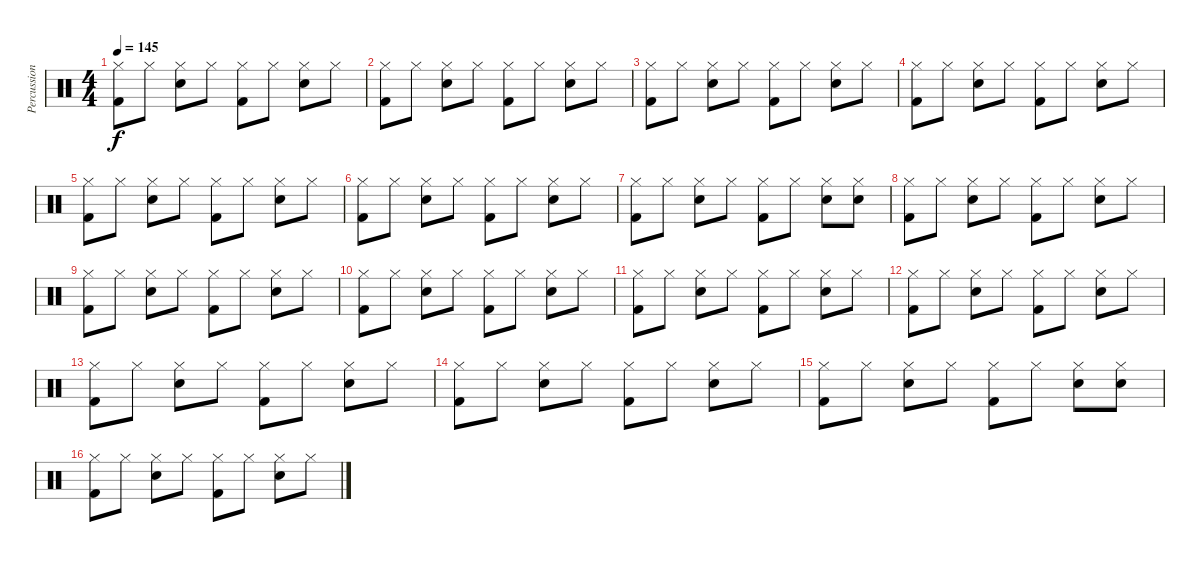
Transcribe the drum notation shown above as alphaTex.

\track ("Percussion (Other)" "Percussion") {instrument percussion}
\staff {score}
\articulation defaults
\ts (4 4)
\tempo 145
\clef neutral
\ks c
("Hi-Hat (closed)" "Kick (hit) 2").8{dy f} "Hi-Hat (closed)".8 ("Hi-Hat (closed)" "Snare (hit) 2").8 "Hi-Hat (closed)".8 ("Hi-Hat (closed)" "Kick (hit) 2").8 "Hi-Hat (closed)".8 ("Hi-Hat (closed)" "Snare (hit) 2").8 "Hi-Hat (closed)".8 |
("Hi-Hat (closed)" "Kick (hit) 2").8 "Hi-Hat (closed)".8 ("Hi-Hat (closed)" "Snare (hit) 2").8 "Hi-Hat (closed)".8 ("Hi-Hat (closed)" "Kick (hit) 2").8 "Hi-Hat (closed)".8 ("Hi-Hat (closed)" "Snare (hit) 2").8 "Hi-Hat (closed)".8 |
("Hi-Hat (closed)" "Kick (hit) 2").8 "Hi-Hat (closed)".8 ("Hi-Hat (closed)" "Snare (hit) 2").8 "Hi-Hat (closed)".8 ("Hi-Hat (closed)" "Kick (hit) 2").8 "Hi-Hat (closed)".8 ("Hi-Hat (closed)" "Snare (hit) 2").8 "Hi-Hat (closed)".8 |
("Hi-Hat (closed)" "Kick (hit) 2").8 "Hi-Hat (closed)".8 ("Hi-Hat (closed)" "Snare (hit) 2").8 "Hi-Hat (closed)".8 ("Hi-Hat (closed)" "Kick (hit) 2").8 "Hi-Hat (closed)".8 ("Hi-Hat (closed)" "Snare (hit) 2").8 "Hi-Hat (closed)".8 |
("Hi-Hat (closed)" "Kick (hit) 2").8 "Hi-Hat (closed)".8 ("Hi-Hat (closed)" "Snare (hit) 2").8 "Hi-Hat (closed)".8 ("Hi-Hat (closed)" "Kick (hit) 2").8 "Hi-Hat (closed)".8 ("Hi-Hat (closed)" "Snare (hit) 2").8 "Hi-Hat (closed)".8 |
("Hi-Hat (closed)" "Kick (hit) 2").8 "Hi-Hat (closed)".8 ("Hi-Hat (closed)" "Snare (hit) 2").8 "Hi-Hat (closed)".8 ("Hi-Hat (closed)" "Kick (hit) 2").8 "Hi-Hat (closed)".8 ("Hi-Hat (closed)" "Snare (hit) 2").8 "Hi-Hat (closed)".8 |
("Hi-Hat (closed)" "Kick (hit) 2").8 "Hi-Hat (closed)".8 ("Hi-Hat (closed)" "Snare (hit) 2").8 "Hi-Hat (closed)".8 ("Hi-Hat (closed)" "Kick (hit) 2").8 "Hi-Hat (closed)".8 ("Hi-Hat (closed)" "Snare (hit) 2").8 ("Hi-Hat (closed)" "Snare (hit) 2").8 |
("Hi-Hat (closed)" "Kick (hit) 2").8 "Hi-Hat (closed)".8 ("Hi-Hat (closed)" "Snare (hit) 2").8 "Hi-Hat (closed)".8 ("Hi-Hat (closed)" "Kick (hit) 2").8 "Hi-Hat (closed)".8 ("Hi-Hat (closed)" "Snare (hit) 2").8 "Hi-Hat (closed)".8 |
("Hi-Hat (closed)" "Kick (hit) 2").8 "Hi-Hat (closed)".8 ("Hi-Hat (closed)" "Snare (hit) 2").8 "Hi-Hat (closed)".8 ("Hi-Hat (closed)" "Kick (hit) 2").8 "Hi-Hat (closed)".8 ("Hi-Hat (closed)" "Snare (hit) 2").8 "Hi-Hat (closed)".8 |
("Hi-Hat (closed)" "Kick (hit) 2").8 "Hi-Hat (closed)".8 ("Hi-Hat (closed)" "Snare (hit) 2").8 "Hi-Hat (closed)".8 ("Hi-Hat (closed)" "Kick (hit) 2").8 "Hi-Hat (closed)".8 ("Hi-Hat (closed)" "Snare (hit) 2").8 "Hi-Hat (closed)".8 |
("Hi-Hat (closed)" "Kick (hit) 2").8 "Hi-Hat (closed)".8 ("Hi-Hat (closed)" "Snare (hit) 2").8 "Hi-Hat (closed)".8 ("Hi-Hat (closed)" "Kick (hit) 2").8 "Hi-Hat (closed)".8 ("Hi-Hat (closed)" "Snare (hit) 2").8 "Hi-Hat (closed)".8 |
("Hi-Hat (closed)" "Kick (hit) 2").8 "Hi-Hat (closed)".8 ("Hi-Hat (closed)" "Snare (hit) 2").8 "Hi-Hat (closed)".8 ("Hi-Hat (closed)" "Kick (hit) 2").8 "Hi-Hat (closed)".8 ("Hi-Hat (closed)" "Snare (hit) 2").8 "Hi-Hat (closed)".8 |
("Hi-Hat (closed)" "Kick (hit) 2").8 "Hi-Hat (closed)".8 ("Hi-Hat (closed)" "Snare (hit) 2").8 "Hi-Hat (closed)".8 ("Hi-Hat (closed)" "Kick (hit) 2").8 "Hi-Hat (closed)".8 ("Hi-Hat (closed)" "Snare (hit) 2").8 "Hi-Hat (closed)".8 |
("Hi-Hat (closed)" "Kick (hit) 2").8 "Hi-Hat (closed)".8 ("Hi-Hat (closed)" "Snare (hit) 2").8 "Hi-Hat (closed)".8 ("Hi-Hat (closed)" "Kick (hit) 2").8 "Hi-Hat (closed)".8 ("Hi-Hat (closed)" "Snare (hit) 2").8 "Hi-Hat (closed)".8 |
("Hi-Hat (closed)" "Kick (hit) 2").8 "Hi-Hat (closed)".8 ("Hi-Hat (closed)" "Snare (hit) 2").8 "Hi-Hat (closed)".8 ("Hi-Hat (closed)" "Kick (hit) 2").8 "Hi-Hat (closed)".8 ("Hi-Hat (closed)" "Snare (hit) 2").8 ("Hi-Hat (closed)" "Snare (hit) 2").8 |
("Hi-Hat (closed)" "Kick (hit) 2").8 "Hi-Hat (closed)".8 ("Hi-Hat (closed)" "Snare (hit) 2").8 "Hi-Hat (closed)".8 ("Hi-Hat (closed)" "Kick (hit) 2").8 "Hi-Hat (closed)".8 ("Hi-Hat (closed)" "Snare (hit) 2").8 "Hi-Hat (closed)".8
